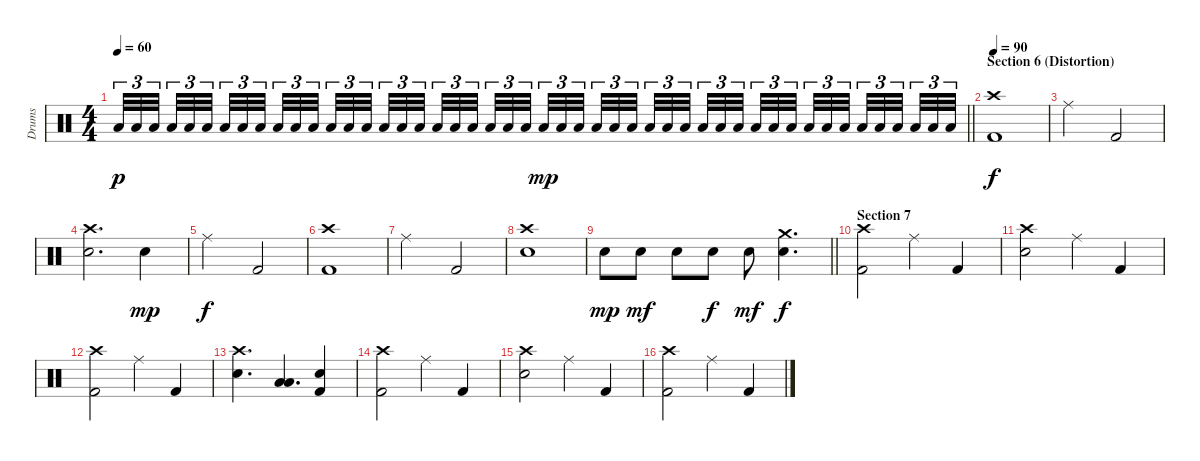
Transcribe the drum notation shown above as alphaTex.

\track ("Drums" "Drums") {instrument percussion}
\staff {score}
\articulation defaults
\ts (4 4)
\tempo 60
\clef neutral
\barLineRight lightlight
\ks c "Low Floor Tom (hit)".32{tu (3 2) dy p} "Low Floor Tom (hit)".32{tu (3 2)} "Low Floor Tom (hit)".32{tu (3 2) beam splitsecondary} "Low Floor Tom (hit)".32{tu (3 2)} "Low Floor Tom (hit)".32{tu (3 2)} "Low Floor Tom (hit)".32{tu (3 2) beam splitsecondary} "Low Floor Tom (hit)".32{tu (3 2)} "Low Floor Tom (hit)".32{tu (3 2)} "Low Floor Tom (hit)".32{tu (3 2) beam splitsecondary} "Low Floor Tom (hit)".32{tu (3 2)} "Low Floor Tom (hit)".32{tu (3 2)} "Low Floor Tom (hit)".32{tu (3 2)} "Low Floor Tom (hit)".32{tu (3 2)} "Low Floor Tom (hit)".32{tu (3 2)} "Low Floor Tom (hit)".32{tu (3 2) beam splitsecondary} "Low Floor Tom (hit)".32{tu (3 2)} "Low Floor Tom (hit)".32{tu (3 2)} "Low Floor Tom (hit)".32{tu (3 2) beam splitsecondary} "Low Floor Tom (hit)".32{tu (3 2)} "Low Floor Tom (hit)".32{tu (3 2)} "Low Floor Tom (hit)".32{tu (3 2) beam splitsecondary} "Low Floor Tom (hit)".32{tu (3 2)} "Low Floor Tom (hit)".32{tu (3 2)} "Low Floor Tom (hit)".32{tu (3 2)} "Low Floor Tom (hit)".32{tu (3 2) dy mp} "Low Floor Tom (hit)".32{tu (3 2)} "Low Floor Tom (hit)".32{tu (3 2) beam splitsecondary} "Low Floor Tom (hit)".32{tu (3 2)} "Low Floor Tom (hit)".32{tu (3 2)} "Low Floor Tom (hit)".32{tu (3 2) beam splitsecondary} "Low Floor Tom (hit)".32{tu (3 2)} "Low Floor Tom (hit)".32{tu (3 2)} "Low Floor Tom (hit)".32{tu (3 2) beam splitsecondary} "Low Floor Tom (hit)".32{tu (3 2)} "Low Floor Tom (hit)".32{tu (3 2)} "Low Floor Tom (hit)".32{tu (3 2)} "Low Floor Tom (hit)".32{tu (3 2)} "Low Floor Tom (hit)".32{tu (3 2)} "Low Floor Tom (hit)".32{tu (3 2) beam splitsecondary} "Low Floor Tom (hit)".32{tu (3 2)} "Low Floor Tom (hit)".32{tu (3 2)} "Low Floor Tom (hit)".32{tu (3 2) beam splitsecondary} "Low Floor Tom (hit)".32{tu (3 2)} "Low Floor Tom (hit)".32{tu (3 2)} "Low Floor Tom (hit)".32{tu (3 2) beam splitsecondary} "Low Floor Tom (hit)".32{tu (3 2)} "Low Floor Tom (hit)".32{tu (3 2)} "Low Floor Tom (hit)".32{tu (3 2)}
|
\section ("" "Section 6 (Distortion)")
\tempo 90
("Crash high (hit)" "Kick (hit) 2").1{dy f} |
"Ride (middle)".2 "Kick (hit) 2".2 |
("Crash high (hit)" "Electric Snare (hit)").2{d} "Electric Snare (hit)".4{dy mp} |
"Ride (middle)".2{dy f} "Kick (hit) 2".2 |
("Crash high (hit)" "Kick (hit) 2").1 |
"Ride (middle)".2 "Kick (hit) 2".2 |
("Crash high (hit)" "Electric Snare (hit)").1 |
\barLineRight lightlight "Electric Snare (hit)".8{dy mp} "Electric Snare (hit)".8{dy mf} "Electric Snare (hit)".8 "Electric Snare (hit)".8{dy f} "Electric Snare (hit)".8{dy mf}
("Crash medium (hit)" "Electric Snare (hit)").4{d dy f} |
\section ("" "Section 7")
("Crash high (hit)" "Kick (hit) 2").2 "Ride (middle)".4 "Kick (hit) 2".4 |
("Crash high (hit)" "Electric Snare (hit)").2 "Ride (middle)".4 "Kick (hit) 2".4 |
("Crash high (hit)" "Kick (hit) 2").2 "Ride (middle)".4 "Kick (hit) 2".4 |
("Crash high (hit)" "Electric Snare (hit)").4{d} ("Low Tom (hit)" "Low Tom (hit)").4{d bu 60} ("Electric Snare (hit)" "Kick (hit) 2").4 |
("Crash high (hit)" "Kick (hit) 2").2 "Ride (middle)".4 "Kick (hit) 2".4 |
("Crash high (hit)" "Electric Snare (hit)").2 "Ride (middle)".4 "Kick (hit) 2".4 |
("Crash high (hit)" "Kick (hit) 2").2 "Ride (middle)".4 "Kick (hit) 2".4
